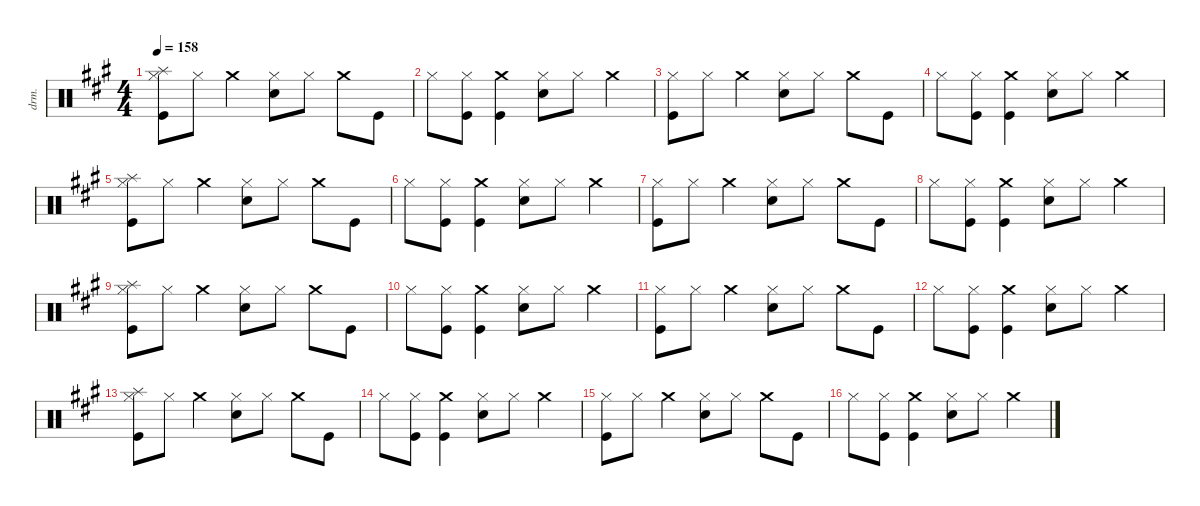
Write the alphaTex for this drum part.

\defaultSystemsLayout 4
\hideDynamics
\bracketExtendMode groupsimilarinstruments
\otherSystemsTrackNameOrientation horizontal
\track ("Drums" "drm.") {defaultSystemsLayout 4 instrument percussion}
\staff {score}
\articulation defaults
\ts (4 4)
\tempo 158
\clef neutral
\ks f#minor
("Splash (hit)"{acc forcenatural} "Hi-Hat (closed)"{acc forcenatural} "Kick (hit)"{acc forcenatural}).8{dy f beam Down} "Hi-Hat (closed)"{acc forcenatural}.8{dy mp beam Down} "Crash medium (hit)"{acc forcenatural}.4{dy f beam Down} ("Hi-Hat (closed)"{acc forcenatural} "Snare (hit) 2"{acc forcenatural}).8{dy mp beam Down} "Hi-Hat (closed)"{acc forcenatural}.8{beam Down} "Crash medium (hit)"{acc forcenatural}.8{dy f beam Down} "Kick (hit)"{acc forcenatural}.8{beam Down} |
"Hi-Hat (closed)"{acc forcenatural}.8{dy mp beam Down} ("Hi-Hat (closed)"{acc forcenatural} "Kick (hit)"{acc forcenatural}).8{beam Down} ("Crash medium (hit)"{acc forcenatural} "Kick (hit)"{acc forcenatural}).4{dy f beam Down} ("Hi-Hat (closed)"{acc forcenatural} "Snare (hit) 2"{acc forcenatural}).8{dy mp beam Down} "Hi-Hat (closed)"{acc forcenatural}.8{beam Down} "Crash medium (hit)"{acc forcenatural}.4{dy f beam Down} |
("Hi-Hat (closed)"{acc forcenatural} "Kick (hit)"{acc forcenatural}).8{dy mp beam Down} "Hi-Hat (closed)"{acc forcenatural}.8{beam Down} "Crash medium (hit)"{acc forcenatural}.4{dy f beam Down} ("Hi-Hat (closed)"{acc forcenatural} "Snare (hit) 2"{acc forcenatural}).8{dy mp beam Down} "Hi-Hat (closed)"{acc forcenatural}.8{beam Down} "Crash medium (hit)"{acc forcenatural}.8{dy f beam Down} "Kick (hit)"{acc forcenatural}.8{beam Down} |
"Hi-Hat (closed)"{acc forcenatural}.8{dy mp beam Down} ("Hi-Hat (closed)"{acc forcenatural} "Kick (hit)"{acc forcenatural}).8{beam Down} ("Crash medium (hit)"{acc forcenatural} "Kick (hit)"{acc forcenatural}).4{dy f beam Down} ("Hi-Hat (closed)"{acc forcenatural} "Snare (hit) 2"{acc forcenatural}).8{dy mp beam Down} "Hi-Hat (closed)"{acc forcenatural}.8{beam Down} "Crash medium (hit)"{acc forcenatural}.4{dy f beam Down} |
("Splash (hit)"{acc forcenatural} "Hi-Hat (closed)"{acc forcenatural} "Kick (hit)"{acc forcenatural}).8{beam Down} "Hi-Hat (closed)"{acc forcenatural}.8{dy mp beam Down} "Crash medium (hit)"{acc forcenatural}.4{dy f beam Down} ("Hi-Hat (closed)"{acc forcenatural} "Snare (hit) 2"{acc forcenatural}).8{dy mp beam Down} "Hi-Hat (closed)"{acc forcenatural}.8{beam Down} "Crash medium (hit)"{acc forcenatural}.8{dy f beam Down} "Kick (hit)"{acc forcenatural}.8{beam Down} |
"Hi-Hat (closed)"{acc forcenatural}.8{dy mp beam Down} ("Hi-Hat (closed)"{acc forcenatural} "Kick (hit)"{acc forcenatural}).8{beam Down} ("Crash medium (hit)"{acc forcenatural} "Kick (hit)"{acc forcenatural}).4{dy f beam Down} ("Hi-Hat (closed)"{acc forcenatural} "Snare (hit) 2"{acc forcenatural}).8{dy mp beam Down} "Hi-Hat (closed)"{acc forcenatural}.8{beam Down} "Crash medium (hit)"{acc forcenatural}.4{dy f beam Down} |
("Hi-Hat (closed)"{acc forcenatural} "Kick (hit)"{acc forcenatural}).8{dy mp beam Down} "Hi-Hat (closed)"{acc forcenatural}.8{beam Down} "Crash medium (hit)"{acc forcenatural}.4{dy f beam Down} ("Hi-Hat (closed)"{acc forcenatural} "Snare (hit) 2"{acc forcenatural}).8{dy mp beam Down} "Hi-Hat (closed)"{acc forcenatural}.8{beam Down} "Crash medium (hit)"{acc forcenatural}.8{dy f beam Down} "Kick (hit)"{acc forcenatural}.8{beam Down} |
"Hi-Hat (closed)"{acc forcenatural}.8{dy mp beam Down} ("Hi-Hat (closed)"{acc forcenatural} "Kick (hit)"{acc forcenatural}).8{beam Down} ("Crash medium (hit)"{acc forcenatural} "Kick (hit)"{acc forcenatural}).4{dy f beam Down} ("Hi-Hat (closed)"{acc forcenatural} "Snare (hit) 2"{acc forcenatural}).8{dy mp beam Down} "Hi-Hat (closed)"{acc forcenatural}.8{beam Down} "Crash medium (hit)"{acc forcenatural}.4{dy f beam Down} |
("Splash (hit)"{acc forcenatural} "Hi-Hat (closed)"{acc forcenatural} "Kick (hit)"{acc forcenatural}).8{beam Down} "Hi-Hat (closed)"{acc forcenatural}.8{dy mp beam Down} "Crash medium (hit)"{acc forcenatural}.4{dy f beam Down} ("Hi-Hat (closed)"{acc forcenatural} "Snare (hit) 2"{acc forcenatural}).8{dy mp beam Down} "Hi-Hat (closed)"{acc forcenatural}.8{beam Down} "Crash medium (hit)"{acc forcenatural}.8{dy f beam Down} "Kick (hit)"{acc forcenatural}.8{beam Down} |
"Hi-Hat (closed)"{acc forcenatural}.8{dy mp beam Down} ("Hi-Hat (closed)"{acc forcenatural} "Kick (hit)"{acc forcenatural}).8{beam Down} ("Crash medium (hit)"{acc forcenatural} "Kick (hit)"{acc forcenatural}).4{dy f beam Down} ("Hi-Hat (closed)"{acc forcenatural} "Snare (hit) 2"{acc forcenatural}).8{dy mp beam Down} "Hi-Hat (closed)"{acc forcenatural}.8{beam Down} "Crash medium (hit)"{acc forcenatural}.4{dy f beam Down} |
("Hi-Hat (closed)"{acc forcenatural} "Kick (hit)"{acc forcenatural}).8{dy mp beam Down} "Hi-Hat (closed)"{acc forcenatural}.8{beam Down} "Crash medium (hit)"{acc forcenatural}.4{dy f beam Down} ("Hi-Hat (closed)"{acc forcenatural} "Snare (hit) 2"{acc forcenatural}).8{dy mp beam Down} "Hi-Hat (closed)"{acc forcenatural}.8{beam Down} "Crash medium (hit)"{acc forcenatural}.8{dy f beam Down} "Kick (hit)"{acc forcenatural}.8{beam Down} |
"Hi-Hat (closed)"{acc forcenatural}.8{dy mp beam Down} ("Hi-Hat (closed)"{acc forcenatural} "Kick (hit)"{acc forcenatural}).8{beam Down} ("Crash medium (hit)"{acc forcenatural} "Kick (hit)"{acc forcenatural}).4{dy f beam Down} ("Hi-Hat (closed)"{acc forcenatural} "Snare (hit) 2"{acc forcenatural}).8{dy mp beam Down} "Hi-Hat (closed)"{acc forcenatural}.8{beam Down} "Crash medium (hit)"{acc forcenatural}.4{dy f beam Down} |
("Splash (hit)"{acc forcenatural} "Hi-Hat (closed)"{acc forcenatural} "Kick (hit)"{acc forcenatural}).8{beam Down} "Hi-Hat (closed)"{acc forcenatural}.8{dy mp beam Down} "Crash medium (hit)"{acc forcenatural}.4{dy f beam Down} ("Hi-Hat (closed)"{acc forcenatural} "Snare (hit) 2"{acc forcenatural}).8{dy mp beam Down} "Hi-Hat (closed)"{acc forcenatural}.8{beam Down} "Crash medium (hit)"{acc forcenatural}.8{dy f beam Down} "Kick (hit)"{acc forcenatural}.8{beam Down} |
"Hi-Hat (closed)"{acc forcenatural}.8{dy mp beam Down} ("Hi-Hat (closed)"{acc forcenatural} "Kick (hit)"{acc forcenatural}).8{beam Down} ("Crash medium (hit)"{acc forcenatural} "Kick (hit)"{acc forcenatural}).4{dy f beam Down} ("Hi-Hat (closed)"{acc forcenatural} "Snare (hit) 2"{acc forcenatural}).8{dy mp beam Down} "Hi-Hat (closed)"{acc forcenatural}.8{beam Down} "Crash medium (hit)"{acc forcenatural}.4{dy f beam Down} |
("Hi-Hat (closed)"{acc forcenatural} "Kick (hit)"{acc forcenatural}).8{dy mp beam Down} "Hi-Hat (closed)"{acc forcenatural}.8{beam Down} "Crash medium (hit)"{acc forcenatural}.4{dy f beam Down} ("Hi-Hat (closed)"{acc forcenatural} "Snare (hit) 2"{acc forcenatural}).8{dy mp beam Down} "Hi-Hat (closed)"{acc forcenatural}.8{beam Down} "Crash medium (hit)"{acc forcenatural}.8{dy f beam Down} "Kick (hit)"{acc forcenatural}.8{beam Down} |
"Hi-Hat (closed)"{acc forcenatural}.8{dy mp beam Down} ("Hi-Hat (closed)"{acc forcenatural} "Kick (hit)"{acc forcenatural}).8{beam Down} ("Crash medium (hit)"{acc forcenatural} "Kick (hit)"{acc forcenatural}).4{dy f beam Down} ("Hi-Hat (closed)"{acc forcenatural} "Snare (hit) 2"{acc forcenatural}).8{dy mp beam Down} "Hi-Hat (closed)"{acc forcenatural}.8{beam Down} "Crash medium (hit)"{acc forcenatural}.4{dy f beam Down}
